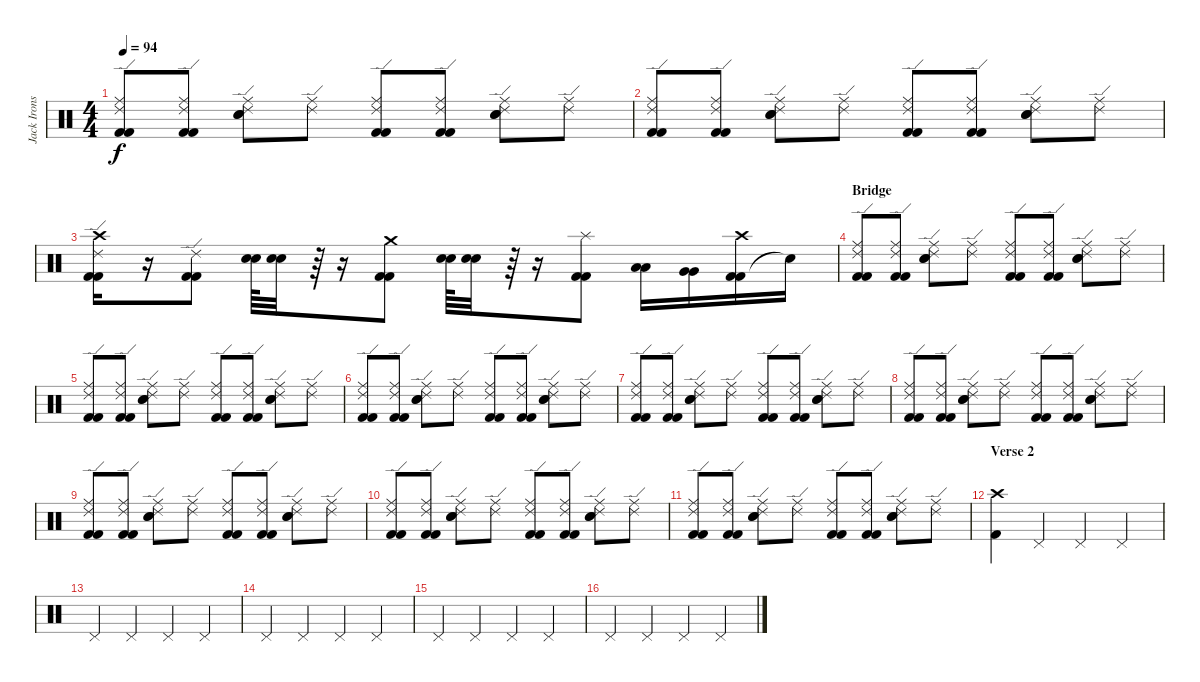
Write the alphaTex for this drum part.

\track ("Jack Irons" "Jack Irons") {instrument percussion}
\staff {score}
\articulation defaults
\ts (4 4)
\tempo 94
\clef neutral
\ks c
("Kick (hit) 2" "Kick (hit) 2" "Ride (middle)" "Ride (edge) 2").8{dy f} ("Kick (hit) 2" "Kick (hit) 2" "Ride (middle)" "Ride (edge) 2").8 ("Electric Snare (hit)" "Electric Snare (hit)" "Ride (middle)" "Ride (edge) 2").8 ("Ride (middle)" "Ride (edge) 2").8 ("Kick (hit) 2" "Kick (hit) 2" "Ride (middle)" "Ride (edge) 2").8 ("Kick (hit) 2" "Kick (hit) 2" "Ride (middle)" "Ride (edge) 2").8 ("Electric Snare (hit)" "Electric Snare (hit)" "Ride (middle)" "Ride (edge) 2").8 ("Ride (middle)" "Ride (edge) 2").8 |
("Kick (hit) 2" "Kick (hit) 2" "Ride (middle)" "Ride (edge) 2").8 ("Kick (hit) 2" "Kick (hit) 2" "Ride (middle)" "Ride (edge) 2").8 ("Electric Snare (hit)" "Electric Snare (hit)" "Ride (middle)" "Ride (edge) 2").8 ("Ride (middle)" "Ride (edge) 2").8 ("Kick (hit) 2" "Kick (hit) 2" "Ride (middle)" "Ride (edge) 2").8 ("Kick (hit) 2" "Kick (hit) 2" "Ride (middle)" "Ride (edge) 2").8 ("Electric Snare (hit)" "Electric Snare (hit)" "Ride (middle)" "Ride (edge) 2").8 ("Ride (middle)" "Ride (edge) 2").8 |
("Kick (hit) 2" "Kick (hit) 2" "Crash high (hit)" "Ride (edge) 2").16 r.16 ("Kick (hit) 2" "Kick (hit) 2" "Ride (edge) 2").8 ("Electric Snare (hit)" "Electric Snare (hit)").64 ("Electric Snare (hit)" "Electric Snare (hit)").32 r.64 r.16 ("Crash medium (hit)" "Kick (hit) 2" "Kick (hit) 2").8 ("Electric Snare (hit)" "Electric Snare (hit)").64 ("Electric Snare (hit)" "Electric Snare (hit)").32 r.64 r.16 ("Splash (hit)" "Kick (hit) 2" "Kick (hit) 2").8 ("Low Tom (hit)" "Low Tom (hit)").16 ("Very Low Tom (hit)" "Very Low Tom (hit)").16 ("Kick (hit) 2" "Kick (hit) 2" "Crash high (hit)").16 "Snare (hit)"{t}.16 |
\section ("" "Bridge")
("Kick (hit) 2" "Kick (hit) 2" "Ride (middle)" "Ride (edge) 2").8 ("Kick (hit) 2" "Kick (hit) 2" "Ride (middle)" "Ride (edge) 2").8 ("Electric Snare (hit)" "Electric Snare (hit)" "Ride (middle)" "Ride (edge) 2").8 ("Ride (middle)" "Ride (edge) 2").8 ("Kick (hit) 2" "Kick (hit) 2" "Ride (middle)" "Ride (edge) 2").8 ("Kick (hit) 2" "Kick (hit) 2" "Ride (middle)" "Ride (edge) 2").8 ("Electric Snare (hit)" "Electric Snare (hit)" "Ride (middle)" "Ride (edge) 2").8 ("Ride (middle)" "Ride (edge) 2").8 |
("Kick (hit) 2" "Kick (hit) 2" "Ride (middle)" "Ride (edge) 2").8 ("Kick (hit) 2" "Kick (hit) 2" "Ride (middle)" "Ride (edge) 2").8 ("Electric Snare (hit)" "Electric Snare (hit)" "Ride (middle)" "Ride (edge) 2").8 ("Ride (middle)" "Ride (edge) 2").8 ("Kick (hit) 2" "Kick (hit) 2" "Ride (middle)" "Ride (edge) 2").8 ("Kick (hit) 2" "Kick (hit) 2" "Ride (middle)" "Ride (edge) 2").8 ("Electric Snare (hit)" "Electric Snare (hit)" "Ride (middle)" "Ride (edge) 2").8 ("Ride (middle)" "Ride (edge) 2").8 |
("Kick (hit) 2" "Kick (hit) 2" "Ride (middle)" "Ride (edge) 2").8 ("Kick (hit) 2" "Kick (hit) 2" "Ride (middle)" "Ride (edge) 2").8 ("Electric Snare (hit)" "Electric Snare (hit)" "Ride (middle)" "Ride (edge) 2").8 ("Ride (middle)" "Ride (edge) 2").8 ("Kick (hit) 2" "Kick (hit) 2" "Ride (middle)" "Ride (edge) 2").8 ("Kick (hit) 2" "Kick (hit) 2" "Ride (middle)" "Ride (edge) 2").8 ("Electric Snare (hit)" "Electric Snare (hit)" "Ride (middle)" "Ride (edge) 2").8 ("Ride (middle)" "Ride (edge) 2").8 |
("Kick (hit) 2" "Kick (hit) 2" "Ride (middle)" "Ride (edge) 2").8 ("Kick (hit) 2" "Kick (hit) 2" "Ride (middle)" "Ride (edge) 2").8 ("Electric Snare (hit)" "Electric Snare (hit)" "Ride (middle)" "Ride (edge) 2").8 ("Ride (middle)" "Ride (edge) 2").8 ("Kick (hit) 2" "Kick (hit) 2" "Ride (middle)" "Ride (edge) 2").8 ("Kick (hit) 2" "Kick (hit) 2" "Ride (middle)" "Ride (edge) 2").8 ("Electric Snare (hit)" "Electric Snare (hit)" "Ride (middle)" "Ride (edge) 2").8 ("Ride (middle)" "Ride (edge) 2").8 |
("Kick (hit) 2" "Kick (hit) 2" "Ride (middle)" "Ride (edge) 2").8 ("Kick (hit) 2" "Kick (hit) 2" "Ride (middle)" "Ride (edge) 2").8 ("Electric Snare (hit)" "Electric Snare (hit)" "Ride (middle)" "Ride (edge) 2").8 ("Ride (middle)" "Ride (edge) 2").8 ("Kick (hit) 2" "Kick (hit) 2" "Ride (middle)" "Ride (edge) 2").8 ("Kick (hit) 2" "Kick (hit) 2" "Ride (middle)" "Ride (edge) 2").8 ("Electric Snare (hit)" "Electric Snare (hit)" "Ride (middle)" "Ride (edge) 2").8 ("Ride (middle)" "Ride (edge) 2").8 |
("Kick (hit) 2" "Kick (hit) 2" "Ride (middle)" "Ride (edge) 2").8 ("Kick (hit) 2" "Kick (hit) 2" "Ride (middle)" "Ride (edge) 2").8 ("Electric Snare (hit)" "Electric Snare (hit)" "Ride (middle)" "Ride (edge) 2").8 ("Ride (middle)" "Ride (edge) 2").8 ("Kick (hit) 2" "Kick (hit) 2" "Ride (middle)" "Ride (edge) 2").8 ("Kick (hit) 2" "Kick (hit) 2" "Ride (middle)" "Ride (edge) 2").8 ("Electric Snare (hit)" "Electric Snare (hit)" "Ride (middle)" "Ride (edge) 2").8 ("Ride (middle)" "Ride (edge) 2").8 |
("Kick (hit) 2" "Kick (hit) 2" "Ride (middle)" "Ride (edge) 2").8 ("Kick (hit) 2" "Kick (hit) 2" "Ride (middle)" "Ride (edge) 2").8 ("Electric Snare (hit)" "Electric Snare (hit)" "Ride (middle)" "Ride (edge) 2").8 ("Ride (middle)" "Ride (edge) 2").8 ("Kick (hit) 2" "Kick (hit) 2" "Ride (middle)" "Ride (edge) 2").8 ("Kick (hit) 2" "Kick (hit) 2" "Ride (middle)" "Ride (edge) 2").8 ("Electric Snare (hit)" "Electric Snare (hit)" "Ride (middle)" "Ride (edge) 2").8 ("Ride (middle)" "Ride (edge) 2").8 |
("Kick (hit) 2" "Kick (hit) 2" "Ride (middle)" "Ride (edge) 2").8 ("Kick (hit) 2" "Kick (hit) 2" "Ride (middle)" "Ride (edge) 2").8 ("Electric Snare (hit)" "Electric Snare (hit)" "Ride (middle)" "Ride (edge) 2").8 ("Ride (middle)" "Ride (edge) 2").8 ("Kick (hit) 2" "Kick (hit) 2" "Ride (middle)" "Ride (edge) 2").8 ("Kick (hit) 2" "Kick (hit) 2" "Ride (middle)" "Ride (edge) 2").8 ("Electric Snare (hit)" "Electric Snare (hit)" "Ride (middle)" "Ride (edge) 2").8 ("Ride (middle)" "Ride (edge) 2").8 |
\section ("" "Verse 2")
("Kick (hit) 2" "Crash high (hit)").4 "Pedal Hi-Hat (hit)".4 "Pedal Hi-Hat (hit)".4 "Pedal Hi-Hat (hit)".4 |
"Pedal Hi-Hat (hit)".4 "Pedal Hi-Hat (hit)".4 "Pedal Hi-Hat (hit)".4 "Pedal Hi-Hat (hit)".4 |
"Pedal Hi-Hat (hit)".4 "Pedal Hi-Hat (hit)".4 "Pedal Hi-Hat (hit)".4 "Pedal Hi-Hat (hit)".4 |
"Pedal Hi-Hat (hit)".4 "Pedal Hi-Hat (hit)".4 "Pedal Hi-Hat (hit)".4 "Pedal Hi-Hat (hit)".4 |
"Pedal Hi-Hat (hit)".4 "Pedal Hi-Hat (hit)".4 "Pedal Hi-Hat (hit)".4 "Pedal Hi-Hat (hit)".4
